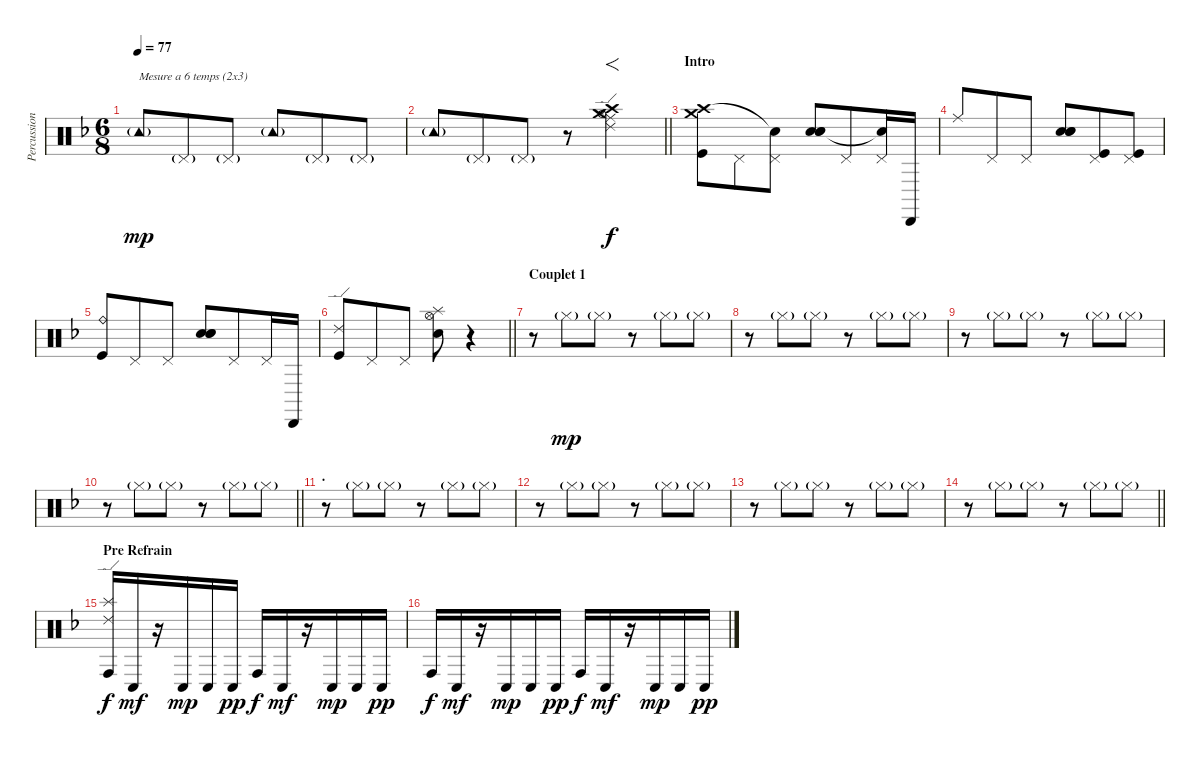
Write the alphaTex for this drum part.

\track ("Percussions" "Percussion") {instrument percussion}
\staff {score}
\articulation defaults
\ts (6 8)
\tempo 77
\clef neutral
\ks f "Tambourine (hit)"{g}.8{txt "Mesure a 6 temps (2x3)" dy mp} "Pedal Hi-Hat (hit)"{g}.8 "Pedal Hi-Hat (hit)"{g}.8 "Tambourine (hit)"{g}.8 "Pedal Hi-Hat (hit)"{g}.8 "Pedal Hi-Hat (hit)"{g}.8
|
\barLineRight lightlight "Tambourine (hit)"{g}.8 "Pedal Hi-Hat (hit)"{g}.8 "Pedal Hi-Hat (hit)"{g}.8
r.8 ("Crash medium (hit)" "Crash high (hit)" "Ride (middle)" "Ride (edge) 2" "Hi-Hat (open)").4{f dy f} |
\section ("" "Intro")
("Crash medium (hit)" "Crash high (hit)" "Kick (hit)").8 "Pedal Hi-Hat (hit)".8 ("Pedal Hi-Hat (hit)" "Snare (hit)"{t}).8 ("Metronome (bell)" "Electric Snare (hit)" "Snare (hit) 2").8 "Pedal Hi-Hat (hit)".8 ("Pedal Hi-Hat (hit)" "Snare (hit)"{t}).16 "Cabasa (hit)".16 |
"Ride (middle)".8 "Pedal Hi-Hat (hit)".8 "Pedal Hi-Hat (hit)".8 ("Metronome (bell)" "Electric Snare (hit)" "Snare (hit) 2").8 ("Pedal Hi-Hat (hit)" "Kick (hit)").8 ("Pedal Hi-Hat (hit)" "Kick (hit)").8 |
("Ride (bell)" "Kick (hit)").8 "Pedal Hi-Hat (hit)".8 "Pedal Hi-Hat (hit)".8 ("Metronome (bell)" "Electric Snare (hit)" "Snare (hit) 2").8 "Pedal Hi-Hat (hit)".8 "Pedal Hi-Hat (hit)".16 "Cabasa (hit)".16 |
\barLineRight lightlight
("Ride (edge) 2" "Kick (hit)").8 "Pedal Hi-Hat (hit)".8 "Pedal Hi-Hat (hit)".8 ("Hi-Hat (open)" "Splash (hit)" "Metronome (bell)").8 r.4 |
\section ("" "Couplet 1")
r.8{volume 7} "Hi-Hat (closed)"{g}.8{dy mp} "Hi-Hat (closed)"{g}.8 r.8 "Hi-Hat (closed)"{g}.8 "Hi-Hat (closed)"{g}.8 |
r.8 "Hi-Hat (closed)"{g}.8 "Hi-Hat (closed)"{g}.8 r.8 "Hi-Hat (closed)"{g}.8 "Hi-Hat (closed)"{g}.8 |
r.8 "Hi-Hat (closed)"{g}.8 "Hi-Hat (closed)"{g}.8 r.8 "Hi-Hat (closed)"{g}.8 "Hi-Hat (closed)"{g}.8 |
\barLineRight lightlight
r.8 "Hi-Hat (closed)"{g}.8 "Hi-Hat (closed)"{g}.8 r.8 "Hi-Hat (closed)"{g}.8 "Hi-Hat (closed)"{g}.8 |
\section ("" ".")
r.8 "Hi-Hat (closed)"{g}.8 "Hi-Hat (closed)"{g}.8 r.8 "Hi-Hat (closed)"{g}.8 "Hi-Hat (closed)"{g}.8 |
r.8 "Hi-Hat (closed)"{g}.8 "Hi-Hat (closed)"{g}.8 r.8 "Hi-Hat (closed)"{g}.8 "Hi-Hat (closed)"{g}.8 |
r.8 "Hi-Hat (closed)"{g}.8 "Hi-Hat (closed)"{g}.8 r.8 "Hi-Hat (closed)"{g}.8 "Hi-Hat (closed)"{g}.8 |
\barLineRight lightlight
r.8 "Hi-Hat (closed)"{g}.8 "Hi-Hat (closed)"{g}.8 r.8 "Hi-Hat (closed)"{g}.8 "Hi-Hat (closed)"{g}.8 |
\section ("" "Pre Refrain")
("Ride (edge) 2" "Splash (hit)" "Conga high (hit)").16{dy f volume 16} "Conga low (hit)".16{dy mf} r.16 "Conga low (hit)".16{dy mp} "Conga low (hit)".16 "Conga low (hit)".16{dy pp} "Conga high (hit)".16{dy f} "Conga low (hit)".16{dy mf} r.16 "Conga low (hit)".16{dy mp} "Conga low (hit)".16 "Conga low (hit)".16{dy pp} |
"Conga high (hit)".16{dy f} "Conga low (hit)".16{dy mf} r.16 "Conga low (hit)".16{dy mp} "Conga low (hit)".16 "Conga low (hit)".16{dy pp} "Conga high (hit)".16{dy f} "Conga low (hit)".16{dy mf} r.16 "Conga low (hit)".16{dy mp} "Conga low (hit)".16 "Conga low (hit)".16{dy pp}
